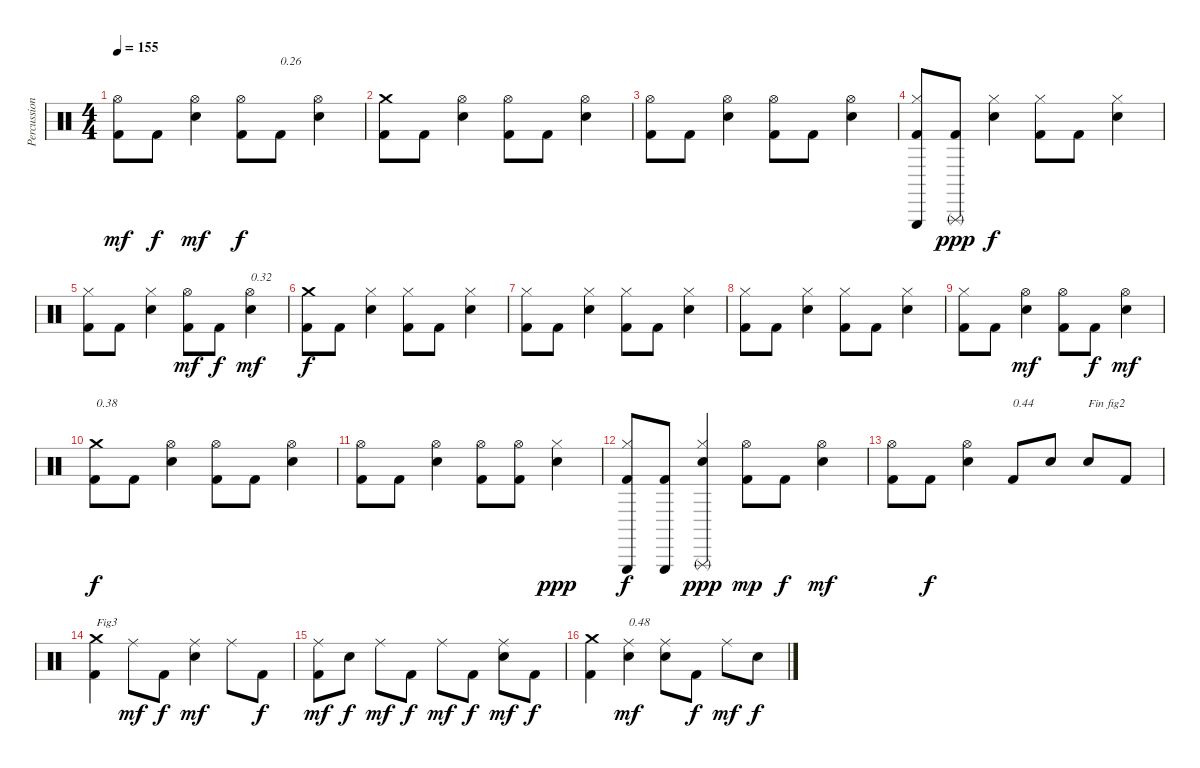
\track ("Percussions" "Percussion") {instrument percussion}
\staff {score}
\articulation defaults
\ts (4 4)
\tempo 155
\clef neutral
\ks c
("Kick (hit) 2" "Hi-Hat (open)").8{dy mf} "Kick (hit) 2".8{dy f} ("Electric Snare (hit)" "Hi-Hat (open)").4{dy mf} ("Kick (hit) 2" "Hi-Hat (open)").8{dy f} "Kick (hit) 2".8{txt "0.26"} ("Electric Snare (hit)" "Hi-Hat (open)").4 |
("Kick (hit) 2" "Crash medium (hit)").8 "Kick (hit) 2".8 ("Electric Snare (hit)" "Hi-Hat (open)").4 ("Kick (hit) 2" "Hi-Hat (open)").8 "Kick (hit) 2".8 ("Electric Snare (hit)" "Hi-Hat (open)").4 |
("Kick (hit) 2" "Hi-Hat (open)").8 "Kick (hit) 2".8 ("Electric Snare (hit)" "Hi-Hat (open)").4 ("Kick (hit) 2" "Hi-Hat (open)").8 "Kick (hit) 2".8 ("Electric Snare (hit)" "Hi-Hat (open)").4 |
("Kick (hit) 2" "Hi-Hat (closed)" "Triangle (hit)").8 ("Kick (hit) 2" "Triangle (rnute)").8{dy ppp} ("Electric Snare (hit)" "Hi-Hat (closed)").4{dy f} ("Kick (hit) 2" "Hi-Hat (closed)").8 "Kick (hit) 2".8 ("Electric Snare (hit)" "Hi-Hat (closed)").4 |
("Kick (hit) 2" "Hi-Hat (closed)").8 "Kick (hit) 2".8 ("Electric Snare (hit)" "Hi-Hat (closed)").4 ("Kick (hit) 2" "Hi-Hat (open)").8{dy mf} "Kick (hit) 2".8{dy f} ("Electric Snare (hit)" "Hi-Hat (open)").4{txt "0.32" dy mf} |
("Kick (hit) 2" "Crash medium (hit)").8{dy f} "Kick (hit) 2".8 ("Electric Snare (hit)" "Hi-Hat (closed)").4 ("Kick (hit) 2" "Hi-Hat (closed)").8 "Kick (hit) 2".8 ("Electric Snare (hit)" "Hi-Hat (closed)").4 |
("Kick (hit) 2" "Hi-Hat (closed)").8 "Kick (hit) 2".8 ("Electric Snare (hit)" "Hi-Hat (closed)").4 ("Kick (hit) 2" "Hi-Hat (closed)").8 "Kick (hit) 2".8 ("Electric Snare (hit)" "Hi-Hat (closed)").4 |
("Kick (hit) 2" "Hi-Hat (closed)").8 "Kick (hit) 2".8 ("Electric Snare (hit)" "Hi-Hat (closed)").4 ("Kick (hit) 2" "Hi-Hat (closed)").8 "Kick (hit) 2".8 ("Electric Snare (hit)" "Hi-Hat (closed)").4 |
("Kick (hit) 2" "Hi-Hat (closed)").8 "Kick (hit) 2".8 ("Electric Snare (hit)" "Hi-Hat (open)").4{dy mf} ("Kick (hit) 2" "Hi-Hat (open)").8 "Kick (hit) 2".8{dy f} ("Electric Snare (hit)" "Hi-Hat (open)").4{dy mf} |
("Kick (hit) 2" "Crash medium (hit)").8{txt "0.38" dy f} "Kick (hit) 2".8 ("Electric Snare (hit)" "Hi-Hat (open)").4 ("Kick (hit) 2" "Hi-Hat (open)").8 "Kick (hit) 2".8 ("Electric Snare (hit)" "Hi-Hat (open)").4 |
("Kick (hit) 2" "Hi-Hat (open)").8 "Kick (hit) 2".8 ("Electric Snare (hit)" "Hi-Hat (open)").4 ("Kick (hit) 2" "Hi-Hat (open)").8 ("Kick (hit) 2" "Hi-Hat (open)").8 ("Electric Snare (hit)" "Hi-Hat (closed)").4{dy ppp} |
("Kick (hit) 2" "Hi-Hat (closed)" "Triangle (hit)").8{dy f} ("Kick (hit) 2" "Triangle (hit)").8 ("Electric Snare (hit)" "Hi-Hat (closed)" "Triangle (rnute)").4{dy ppp} ("Kick (hit) 2" "Hi-Hat (open)").8{dy mp} "Kick (hit) 2".8{dy f} ("Electric Snare (hit)" "Hi-Hat (open)").4{dy mf} |
("Kick (hit) 2" "Hi-Hat (open)").8 "Kick (hit) 2".8{dy f} ("Electric Snare (hit)" "Hi-Hat (open)").4 "Kick (hit) 2".8{txt "0.44"} "Electric Snare (hit)".8 "Electric Snare (hit)".8{txt "Fin fig2"} "Kick (hit) 2".8 |
("Kick (hit) 2" "Crash medium (hit)").4{txt "Fig3"} "Ride (middle)".8{dy mf} "Kick (hit) 2".8{dy f} ("Electric Snare (hit)" "Ride (middle)").4{dy mf} "Ride (middle)".8 "Kick (hit) 2".8{dy f} |
("Kick (hit) 2" "Ride (middle)").8{dy mf} "Electric Snare (hit)".8{dy f} "Ride (middle)".8{dy mf} "Kick (hit) 2".8{dy f} "Ride (middle)".8{dy mf} "Kick (hit) 2".8{dy f} ("Electric Snare (hit)" "Ride (middle)").8{dy mf} "Kick (hit) 2".8{dy f} |
("Kick (hit) 2" "Crash medium (hit)").4 ("Electric Snare (hit)" "Ride (middle)").4{txt "0.48" dy mf} ("Electric Snare (hit)" "Ride (middle)").8 "Kick (hit) 2".8{dy f} "Ride (middle)".8{dy mf} "Electric Snare (hit)".8{dy f}
